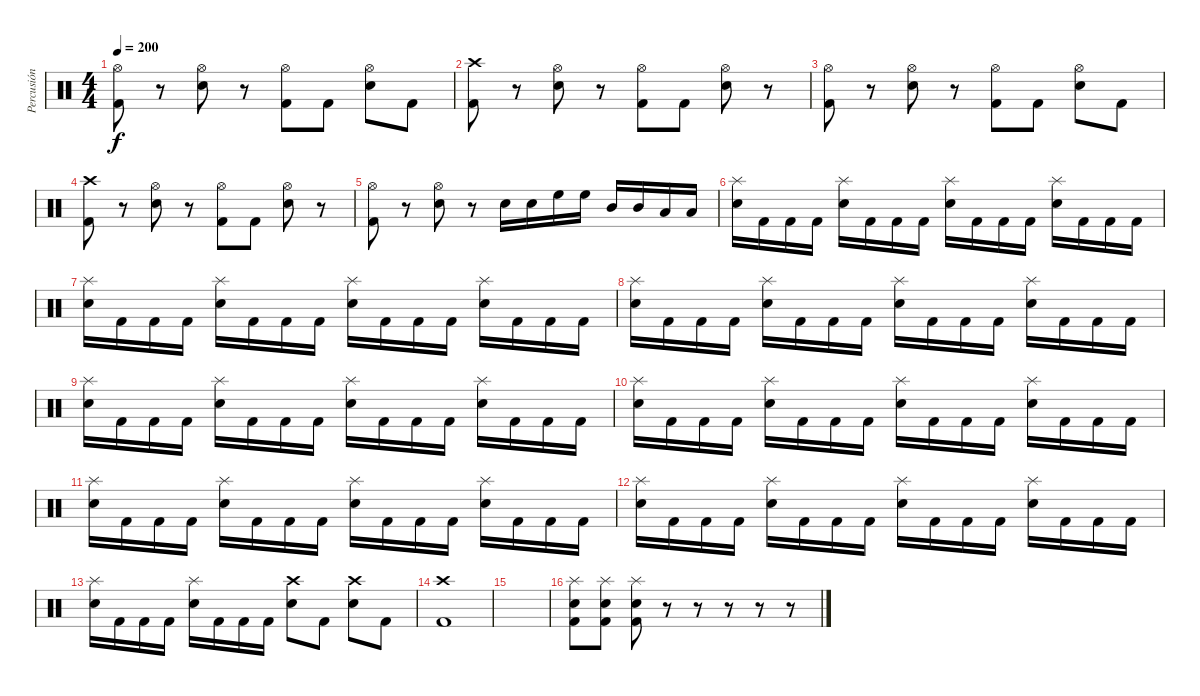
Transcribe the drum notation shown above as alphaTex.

\track ("Percusión" "Percusión") {instrument percussion}
\staff {score}
\articulation defaults
\ts (4 4)
\tempo 200
\clef neutral
\ks c
("Hi-Hat (open)" "Kick (hit) 2").8{dy f} r.8 ("Hi-Hat (open)" "Electric Snare (hit)").8 r.8 ("Hi-Hat (open)" "Kick (hit) 2").8 "Kick (hit) 2".8 ("Hi-Hat (open)" "Electric Snare (hit)").8 "Kick (hit) 2".8 |
("Crash high (hit)" "Kick (hit) 2").8 r.8 ("Hi-Hat (open)" "Electric Snare (hit)").8 r.8 ("Hi-Hat (open)" "Kick (hit) 2").8 "Kick (hit) 2".8 ("Hi-Hat (open)" "Electric Snare (hit)").8 r.8 |
("Hi-Hat (open)" "Kick (hit) 2").8 r.8 ("Hi-Hat (open)" "Electric Snare (hit)").8 r.8 ("Hi-Hat (open)" "Kick (hit) 2").8 "Kick (hit) 2".8 ("Hi-Hat (open)" "Electric Snare (hit)").8 "Kick (hit) 2".8 |
("Crash high (hit)" "Kick (hit) 2").8 r.8 ("Hi-Hat (open)" "Electric Snare (hit)").8 r.8 ("Hi-Hat (open)" "Kick (hit) 2").8 "Kick (hit) 2".8 ("Hi-Hat (open)" "Electric Snare (hit)").8 r.8 |
("Hi-Hat (open)" "Kick (hit) 2").8 r.8 ("Hi-Hat (open)" "Electric Snare (hit)").8 r.8 "Electric Snare (hit)".16 "Electric Snare (hit)".16 "High Floor Tom (hit)".16 "High Floor Tom (hit)".16 "Mid Tom (hit)".16 "Mid Tom (hit)".16 "Low Tom (hit)".16 "Low Tom (hit)".16 |
("Splash (hit)" "Electric Snare (hit)").16 "Kick (hit) 2".16 "Kick (hit) 2".16 "Kick (hit) 2".16 ("Splash (hit)" "Electric Snare (hit)").16 "Kick (hit) 2".16 "Kick (hit) 2".16 "Kick (hit) 2".16 ("Splash (hit)" "Electric Snare (hit)").16 "Kick (hit) 2".16 "Kick (hit) 2".16 "Kick (hit) 2".16 ("Splash (hit)" "Electric Snare (hit)").16 "Kick (hit) 2".16 "Kick (hit) 2".16 "Kick (hit) 2".16 |
("Splash (hit)" "Electric Snare (hit)").16 "Kick (hit) 2".16 "Kick (hit) 2".16 "Kick (hit) 2".16 ("Splash (hit)" "Electric Snare (hit)").16 "Kick (hit) 2".16 "Kick (hit) 2".16 "Kick (hit) 2".16 ("Splash (hit)" "Electric Snare (hit)").16 "Kick (hit) 2".16 "Kick (hit) 2".16 "Kick (hit) 2".16 ("Splash (hit)" "Electric Snare (hit)").16 "Kick (hit) 2".16 "Kick (hit) 2".16 "Kick (hit) 2".16 |
("Splash (hit)" "Electric Snare (hit)").16 "Kick (hit) 2".16 "Kick (hit) 2".16 "Kick (hit) 2".16 ("Splash (hit)" "Electric Snare (hit)").16 "Kick (hit) 2".16 "Kick (hit) 2".16 "Kick (hit) 2".16 ("Splash (hit)" "Electric Snare (hit)").16 "Kick (hit) 2".16 "Kick (hit) 2".16 "Kick (hit) 2".16 ("Splash (hit)" "Electric Snare (hit)").16 "Kick (hit) 2".16 "Kick (hit) 2".16 "Kick (hit) 2".16 |
("Splash (hit)" "Electric Snare (hit)").16 "Kick (hit) 2".16 "Kick (hit) 2".16 "Kick (hit) 2".16 ("Splash (hit)" "Electric Snare (hit)").16 "Kick (hit) 2".16 "Kick (hit) 2".16 "Kick (hit) 2".16 ("Splash (hit)" "Electric Snare (hit)").16 "Kick (hit) 2".16 "Kick (hit) 2".16 "Kick (hit) 2".16 ("Splash (hit)" "Electric Snare (hit)").16 "Kick (hit) 2".16 "Kick (hit) 2".16 "Kick (hit) 2".16 |
("Splash (hit)" "Electric Snare (hit)").16 "Kick (hit) 2".16 "Kick (hit) 2".16 "Kick (hit) 2".16 ("Splash (hit)" "Electric Snare (hit)").16 "Kick (hit) 2".16 "Kick (hit) 2".16 "Kick (hit) 2".16 ("Splash (hit)" "Electric Snare (hit)").16 "Kick (hit) 2".16 "Kick (hit) 2".16 "Kick (hit) 2".16 ("Splash (hit)" "Electric Snare (hit)").16 "Kick (hit) 2".16 "Kick (hit) 2".16 "Kick (hit) 2".16 |
("Splash (hit)" "Electric Snare (hit)").16 "Kick (hit) 2".16 "Kick (hit) 2".16 "Kick (hit) 2".16 ("Splash (hit)" "Electric Snare (hit)").16 "Kick (hit) 2".16 "Kick (hit) 2".16 "Kick (hit) 2".16 ("Splash (hit)" "Electric Snare (hit)").16 "Kick (hit) 2".16 "Kick (hit) 2".16 "Kick (hit) 2".16 ("Splash (hit)" "Electric Snare (hit)").16 "Kick (hit) 2".16 "Kick (hit) 2".16 "Kick (hit) 2".16 |
("Splash (hit)" "Electric Snare (hit)").16 "Kick (hit) 2".16 "Kick (hit) 2".16 "Kick (hit) 2".16 ("Splash (hit)" "Electric Snare (hit)").16 "Kick (hit) 2".16 "Kick (hit) 2".16 "Kick (hit) 2".16 ("Splash (hit)" "Electric Snare (hit)").16 "Kick (hit) 2".16 "Kick (hit) 2".16 "Kick (hit) 2".16 ("Splash (hit)" "Electric Snare (hit)").16 "Kick (hit) 2".16 "Kick (hit) 2".16 "Kick (hit) 2".16 |
("Splash (hit)" "Electric Snare (hit)").16 "Kick (hit) 2".16 "Kick (hit) 2".16 "Kick (hit) 2".16 ("Splash (hit)" "Electric Snare (hit)").16 "Kick (hit) 2".16 "Kick (hit) 2".16 "Kick (hit) 2".16 ("Crash high (hit)" "Electric Snare (hit)").8 "Kick (hit) 2".8 ("Crash high (hit)" "Electric Snare (hit)").8 "Kick (hit) 2".8 |
("Crash high (hit)" "Kick (hit) 2").1 |
|
("Splash (hit)" "Kick (hit) 2" "Electric Snare (hit)").8 ("Splash (hit)" "Kick (hit) 2" "Electric Snare (hit)").8 ("Splash (hit)" "Kick (hit) 2" "Electric Snare (hit)").8 r.8 r.8 r.8 r.8 r.8
